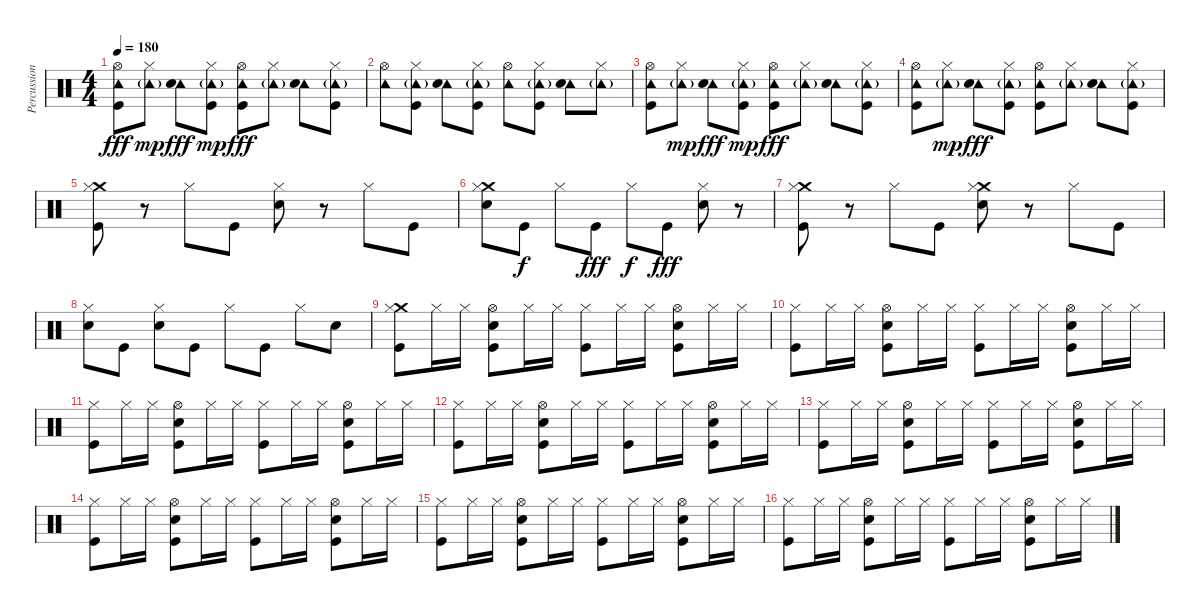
\track ("Percussion" "Percussion") {instrument percussion}
\staff {score}
\articulation defaults
\ts (4 4)
\tempo 180
\clef neutral
\ks c
("Tambourine (hit)" "Hi-Hat (open)" "Kick (hit)").8{dy fff} ("Tambourine (hit)"{g} "Hi-Hat (closed)").8{dy mp} ("Tambourine (hit)" "Electric Snare (hit)").8{dy fff} ("Tambourine (hit)"{g} "Hi-Hat (closed)" "Kick (hit)").8{dy mp} ("Tambourine (hit)" "Hi-Hat (open)" "Kick (hit)").8{dy fff} ("Tambourine (hit)"{g} "Hi-Hat (closed)").8 ("Tambourine (hit)" "Electric Snare (hit)").8 ("Tambourine (hit)"{g} "Hi-Hat (closed)" "Kick (hit)").8 |
("Tambourine (hit)" "Hi-Hat (open)").8 ("Tambourine (hit)"{g} "Hi-Hat (closed)" "Kick (hit)").8 ("Tambourine (hit)" "Electric Snare (hit)").8 ("Tambourine (hit)"{g} "Hi-Hat (closed)" "Kick (hit)").8 ("Tambourine (hit)" "Hi-Hat (open)").8 ("Tambourine (hit)"{g} "Hi-Hat (closed)" "Kick (hit)").8 ("Tambourine (hit)" "Electric Snare (hit)").8 ("Tambourine (hit)"{g} "Hi-Hat (closed)").8 |
("Tambourine (hit)" "Hi-Hat (open)" "Kick (hit)").8 ("Tambourine (hit)"{g} "Hi-Hat (closed)").8{dy mp} ("Tambourine (hit)" "Electric Snare (hit)").8{dy fff} ("Tambourine (hit)"{g} "Hi-Hat (closed)" "Kick (hit)").8{dy mp} ("Tambourine (hit)" "Hi-Hat (open)" "Kick (hit)").8{dy fff} ("Tambourine (hit)"{g} "Hi-Hat (closed)").8 ("Tambourine (hit)" "Electric Snare (hit)").8 ("Tambourine (hit)"{g} "Hi-Hat (closed)" "Kick (hit)").8 |
("Tambourine (hit)" "Hi-Hat (open)" "Kick (hit)").8 ("Tambourine (hit)"{g} "Hi-Hat (closed)").8{dy mp} ("Tambourine (hit)" "Electric Snare (hit)").8{dy fff} ("Tambourine (hit)"{g} "Hi-Hat (closed)" "Kick (hit)").8 ("Tambourine (hit)" "Hi-Hat (open)" "Kick (hit)").8 ("Tambourine (hit)"{g} "Hi-Hat (closed)").8 ("Tambourine (hit)" "Electric Snare (hit)").8 ("Tambourine (hit)"{g} "Hi-Hat (closed)" "Kick (hit)").8 |
("Crash medium (hit)" "Hi-Hat (closed)" "Kick (hit)").8 r.8 "Hi-Hat (closed)".8 "Kick (hit)".8 ("Electric Snare (hit)" "Hi-Hat (closed)").8 r.8 "Hi-Hat (closed)".8 "Kick (hit)".8 |
("Crash medium (hit)" "Electric Snare (hit)" "Hi-Hat (closed)").8 "Kick (hit)".8{dy f} "Hi-Hat (closed)".8 "Kick (hit)".8{dy fff} "Hi-Hat (closed)".8{dy f} "Kick (hit)".8{dy fff} ("Electric Snare (hit)" "Hi-Hat (closed)").8 r.8 |
("Crash medium (hit)" "Hi-Hat (closed)" "Kick (hit)").8 r.8 "Hi-Hat (closed)".8 "Kick (hit)".8 ("Crash medium (hit)" "Electric Snare (hit)" "Hi-Hat (closed)").8 r.8 "Hi-Hat (closed)".8 "Kick (hit)".8 |
("Hi-Hat (closed)" "Electric Snare (hit)").8 "Kick (hit)".8 ("Electric Snare (hit)" "Hi-Hat (closed)").8 "Kick (hit)".8 "Hi-Hat (closed)".8 "Kick (hit)".8 "Hi-Hat (closed)".8 "Electric Snare (hit)".8 |
("Crash medium (hit)" "Kick (hit)" "Hi-Hat (closed)").8 "Hi-Hat (closed)".16 "Hi-Hat (closed)".16 ("Electric Snare (hit)" "Kick (hit)" "Hi-Hat (open)").8 "Hi-Hat (closed)".16 "Hi-Hat (closed)".16 ("Kick (hit)" "Hi-Hat (closed)").8 "Hi-Hat (closed)".16 "Hi-Hat (closed)".16 ("Electric Snare (hit)" "Kick (hit)" "Hi-Hat (open)").8 "Hi-Hat (closed)".16 "Hi-Hat (closed)".16 |
("Kick (hit)" "Hi-Hat (closed)").8 "Hi-Hat (closed)".16 "Hi-Hat (closed)".16 ("Electric Snare (hit)" "Kick (hit)" "Hi-Hat (open)").8 "Hi-Hat (closed)".16 "Hi-Hat (closed)".16 ("Kick (hit)" "Hi-Hat (closed)").8 "Hi-Hat (closed)".16 "Hi-Hat (closed)".16 ("Electric Snare (hit)" "Kick (hit)" "Hi-Hat (open)").8 "Hi-Hat (closed)".16 "Hi-Hat (closed)".16 |
("Kick (hit)" "Hi-Hat (closed)").8 "Hi-Hat (closed)".16 "Hi-Hat (closed)".16 ("Electric Snare (hit)" "Kick (hit)" "Hi-Hat (open)").8 "Hi-Hat (closed)".16 "Hi-Hat (closed)".16 ("Kick (hit)" "Hi-Hat (closed)").8 "Hi-Hat (closed)".16 "Hi-Hat (closed)".16 ("Electric Snare (hit)" "Kick (hit)" "Hi-Hat (open)").8 "Hi-Hat (closed)".16 "Hi-Hat (closed)".16 |
("Kick (hit)" "Hi-Hat (closed)").8 "Hi-Hat (closed)".16 "Hi-Hat (closed)".16 ("Electric Snare (hit)" "Kick (hit)" "Hi-Hat (open)").8 "Hi-Hat (closed)".16 "Hi-Hat (closed)".16 ("Kick (hit)" "Hi-Hat (closed)").8 "Hi-Hat (closed)".16 "Hi-Hat (closed)".16 ("Electric Snare (hit)" "Kick (hit)" "Hi-Hat (open)").8 "Hi-Hat (closed)".16 "Hi-Hat (closed)".16 |
("Kick (hit)" "Hi-Hat (closed)").8 "Hi-Hat (closed)".16 "Hi-Hat (closed)".16 ("Electric Snare (hit)" "Kick (hit)" "Hi-Hat (open)").8 "Hi-Hat (closed)".16 "Hi-Hat (closed)".16 ("Kick (hit)" "Hi-Hat (closed)").8 "Hi-Hat (closed)".16 "Hi-Hat (closed)".16 ("Electric Snare (hit)" "Kick (hit)" "Hi-Hat (open)").8 "Hi-Hat (closed)".16 "Hi-Hat (closed)".16 |
("Kick (hit)" "Hi-Hat (closed)").8 "Hi-Hat (closed)".16 "Hi-Hat (closed)".16 ("Electric Snare (hit)" "Kick (hit)" "Hi-Hat (open)").8 "Hi-Hat (closed)".16 "Hi-Hat (closed)".16 ("Kick (hit)" "Hi-Hat (closed)").8 "Hi-Hat (closed)".16 "Hi-Hat (closed)".16 ("Electric Snare (hit)" "Kick (hit)" "Hi-Hat (open)").8 "Hi-Hat (closed)".16 "Hi-Hat (closed)".16 |
("Kick (hit)" "Hi-Hat (closed)").8 "Hi-Hat (closed)".16 "Hi-Hat (closed)".16 ("Electric Snare (hit)" "Kick (hit)" "Hi-Hat (open)").8 "Hi-Hat (closed)".16 "Hi-Hat (closed)".16 ("Kick (hit)" "Hi-Hat (closed)").8 "Hi-Hat (closed)".16 "Hi-Hat (closed)".16 ("Electric Snare (hit)" "Kick (hit)" "Hi-Hat (open)").8 "Hi-Hat (closed)".16 "Hi-Hat (closed)".16 |
("Kick (hit)" "Hi-Hat (closed)").8 "Hi-Hat (closed)".16 "Hi-Hat (closed)".16 ("Electric Snare (hit)" "Kick (hit)" "Hi-Hat (open)").8 "Hi-Hat (closed)".16 "Hi-Hat (closed)".16 ("Kick (hit)" "Hi-Hat (closed)").8 "Hi-Hat (closed)".16 "Hi-Hat (closed)".16 ("Electric Snare (hit)" "Kick (hit)" "Hi-Hat (open)").8 "Hi-Hat (closed)".16 "Hi-Hat (closed)".16
